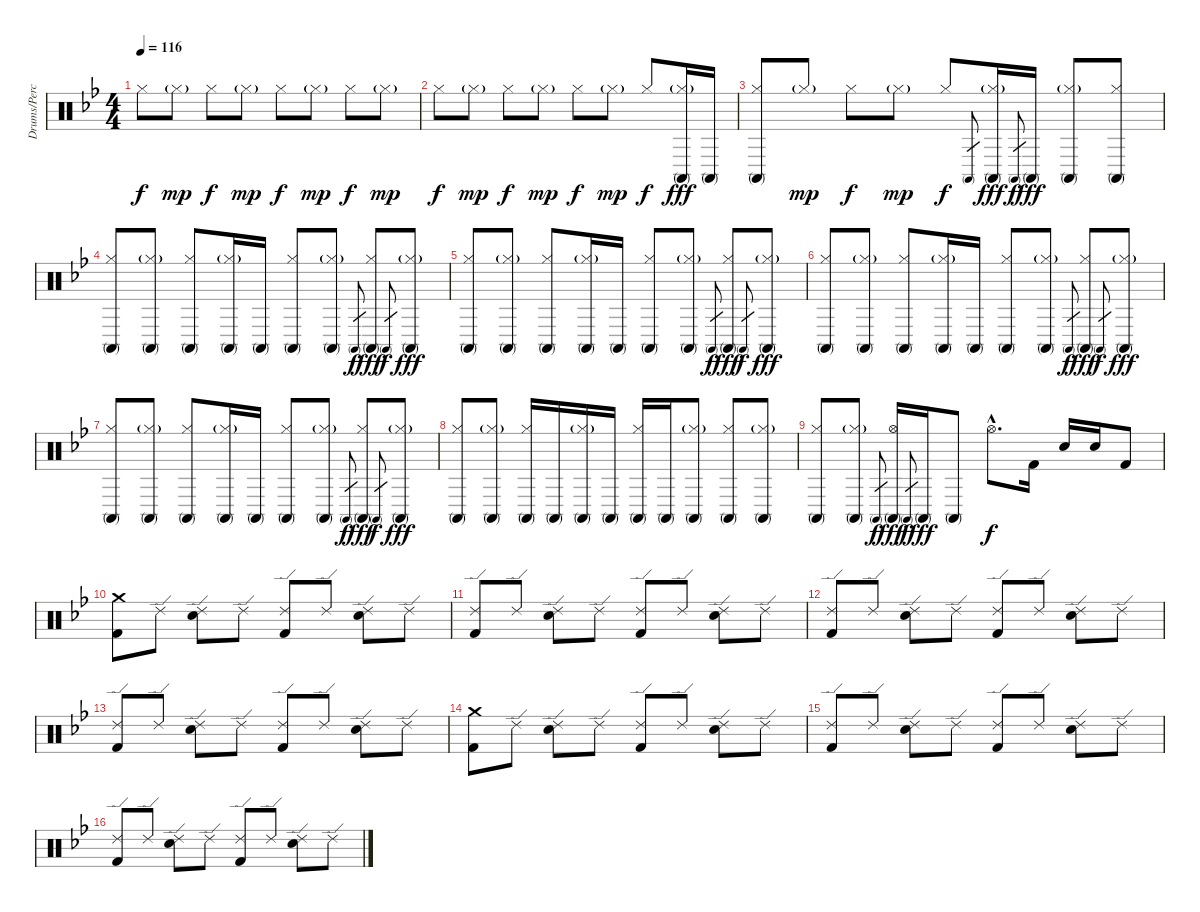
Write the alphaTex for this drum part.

\track ("Drums/Percussion (Bengerg)" "Drums/Perc") {instrument percussion}
\staff {score}
\articulation defaults
\ts (4 4)
\tempo 116
\clef neutral
\ks bb "Hi-Hat (closed)".8{dy f} "Hi-Hat (closed)"{g}.8{dy mp} "Hi-Hat (closed)".8{dy f} "Hi-Hat (closed)"{g}.8{dy mp} "Hi-Hat (closed)".8{dy f} "Hi-Hat (closed)"{g}.8{dy mp} "Hi-Hat (closed)".8{dy f} "Hi-Hat (closed)"{g}.8{dy mp}
|
"Hi-Hat (closed)".8{dy f} "Hi-Hat (closed)"{g}.8{dy mp} "Hi-Hat (closed)".8{dy f} "Hi-Hat (closed)"{g}.8{dy mp} "Hi-Hat (closed)".8{dy f} "Hi-Hat (closed)"{g}.8{dy mp} "Hi-Hat (closed)".8{dy f} ("Hi-Hat (closed)"{g} "Conga high (mute)").16{dy fff} "Conga high (mute)".16 |
("Hi-Hat (closed)" "Conga high (mute)").8 "Hi-Hat (closed)"{g}.8{dy mp} "Hi-Hat (closed)".8{dy f} "Hi-Hat (closed)"{g}.8{dy mp} "Hi-Hat (closed)".8{dy f} "Conga high (mute)".8{gr} ("Hi-Hat (closed)"{g} "Conga high (mute)").16{dy fff} "Conga high (mute)".8{gr dy f} "Conga high (mute)".16{dy fff} ("Hi-Hat (closed)"{g} "Conga high (mute)").8 ("Hi-Hat (closed)" "Conga high (mute)").8 |
("Hi-Hat (closed)" "Conga high (mute)").8 ("Hi-Hat (closed)"{g} "Conga high (mute)").8 ("Hi-Hat (closed)" "Conga high (mute)").8 ("Hi-Hat (closed)"{g} "Conga high (mute)").16 "Conga high (mute)".16 ("Hi-Hat (closed)" "Conga high (mute)").8 ("Hi-Hat (closed)"{g} "Conga high (mute)").8 "Conga high (mute)".8{gr dy f} ("Hi-Hat (closed)" "Conga high (mute)").8{dy fff} "Conga high (mute)".8{gr dy f} ("Hi-Hat (closed)"{g} "Conga high (mute)").8{dy fff} |
("Hi-Hat (closed)" "Conga high (mute)").8 ("Hi-Hat (closed)"{g} "Conga high (mute)").8 ("Hi-Hat (closed)" "Conga high (mute)").8 ("Hi-Hat (closed)"{g} "Conga high (mute)").16 "Conga high (mute)".16 ("Hi-Hat (closed)" "Conga high (mute)").8 ("Hi-Hat (closed)"{g} "Conga high (mute)").8 "Conga high (mute)".8{gr dy f} ("Hi-Hat (closed)" "Conga high (mute)").8{dy fff} "Conga high (mute)".8{gr dy f} ("Hi-Hat (closed)"{g} "Conga high (mute)").8{dy fff} |
("Hi-Hat (closed)" "Conga high (mute)").8 ("Hi-Hat (closed)"{g} "Conga high (mute)").8 ("Hi-Hat (closed)" "Conga high (mute)").8 ("Hi-Hat (closed)"{g} "Conga high (mute)").16 "Conga high (mute)".16 ("Hi-Hat (closed)" "Conga high (mute)").8 ("Hi-Hat (closed)"{g} "Conga high (mute)").8 "Conga high (mute)".8{gr dy f} ("Hi-Hat (closed)" "Conga high (mute)").8{dy fff} "Conga high (mute)".8{gr dy f} ("Hi-Hat (closed)"{g} "Conga high (mute)").8{dy fff} |
("Hi-Hat (closed)" "Conga high (mute)").8 ("Hi-Hat (closed)"{g} "Conga high (mute)").8 ("Hi-Hat (closed)" "Conga high (mute)").8 ("Hi-Hat (closed)"{g} "Conga high (mute)").16 "Conga high (mute)".16 ("Hi-Hat (closed)" "Conga high (mute)").8 ("Hi-Hat (closed)"{g} "Conga high (mute)").8 "Conga high (mute)".8{gr dy f} ("Hi-Hat (closed)" "Conga high (mute)").8{dy fff} "Conga high (mute)".8{gr dy f} ("Hi-Hat (closed)"{g} "Conga high (mute)").8{dy fff} |
("Hi-Hat (closed)" "Conga high (mute)").8 ("Hi-Hat (closed)"{g} "Conga high (mute)").8 ("Hi-Hat (closed)" "Conga high (mute)").16 "Conga high (mute)".16 ("Hi-Hat (closed)"{g} "Conga high (mute)").16 "Conga high (mute)".16 ("Hi-Hat (closed)" "Conga high (mute)").16 "Conga high (mute)".16 ("Hi-Hat (closed)"{g} "Conga high (mute)").8 ("Hi-Hat (closed)" "Conga high (mute)").8 ("Hi-Hat (closed)"{g} "Conga high (mute)").8 |
("Hi-Hat (closed)" "Conga high (mute)").8 ("Hi-Hat (closed)"{g} "Conga high (mute)").8 "Conga high (mute)".8{gr dy f} ("Hi-Hat (open)" "Conga high (mute)").16{dy fff} "Conga high (mute)".8{gr dy f} "Conga high (mute)".16{dy fff} "Conga high (mute)".8 "Hi-Hat (open)"{hac}.8{d dy f} "Kick (hit) 2".16 "Electric Snare (hit)".16 "Electric Snare (hit)".16 "Kick (hit) 2".8 |
("Crash medium (hit)" "Kick (hit) 2").8 "Ride (edge) 2".8 ("Ride (edge) 2" "Electric Snare (hit)").8 "Ride (edge) 2".8 ("Ride (edge) 2" "Kick (hit) 2").8 "Ride (edge) 2".8 ("Ride (edge) 2" "Electric Snare (hit)").8 "Ride (edge) 2".8 |
("Ride (edge) 2" "Kick (hit) 2").8 "Ride (edge) 2".8 ("Ride (edge) 2" "Electric Snare (hit)").8 "Ride (edge) 2".8 ("Ride (edge) 2" "Kick (hit) 2").8 "Ride (edge) 2".8 ("Ride (edge) 2" "Electric Snare (hit)").8 "Ride (edge) 2".8 |
("Ride (edge) 2" "Kick (hit) 2").8 "Ride (edge) 2".8 ("Ride (edge) 2" "Electric Snare (hit)").8 "Ride (edge) 2".8 ("Ride (edge) 2" "Kick (hit) 2").8 "Ride (edge) 2".8 ("Ride (edge) 2" "Electric Snare (hit)").8 "Ride (edge) 2".8 |
("Ride (edge) 2" "Kick (hit) 2").8 "Ride (edge) 2".8 ("Ride (edge) 2" "Electric Snare (hit)").8 "Ride (edge) 2".8 ("Ride (edge) 2" "Kick (hit) 2").8 "Ride (edge) 2".8 ("Ride (edge) 2" "Electric Snare (hit)").8 "Ride (edge) 2".8 |
("Crash medium (hit)" "Kick (hit) 2").8 "Ride (edge) 2".8 ("Ride (edge) 2" "Electric Snare (hit)").8 "Ride (edge) 2".8 ("Ride (edge) 2" "Kick (hit) 2").8 "Ride (edge) 2".8 ("Ride (edge) 2" "Electric Snare (hit)").8 "Ride (edge) 2".8 |
("Ride (edge) 2" "Kick (hit) 2").8 "Ride (edge) 2".8 ("Ride (edge) 2" "Electric Snare (hit)").8 "Ride (edge) 2".8 ("Ride (edge) 2" "Kick (hit) 2").8 "Ride (edge) 2".8 ("Ride (edge) 2" "Electric Snare (hit)").8 "Ride (edge) 2".8 |
("Ride (edge) 2" "Kick (hit) 2").8 "Ride (edge) 2".8 ("Ride (edge) 2" "Electric Snare (hit)").8 "Ride (edge) 2".8 ("Ride (edge) 2" "Kick (hit) 2").8 "Ride (edge) 2".8 ("Ride (edge) 2" "Electric Snare (hit)").8 "Ride (edge) 2".8
